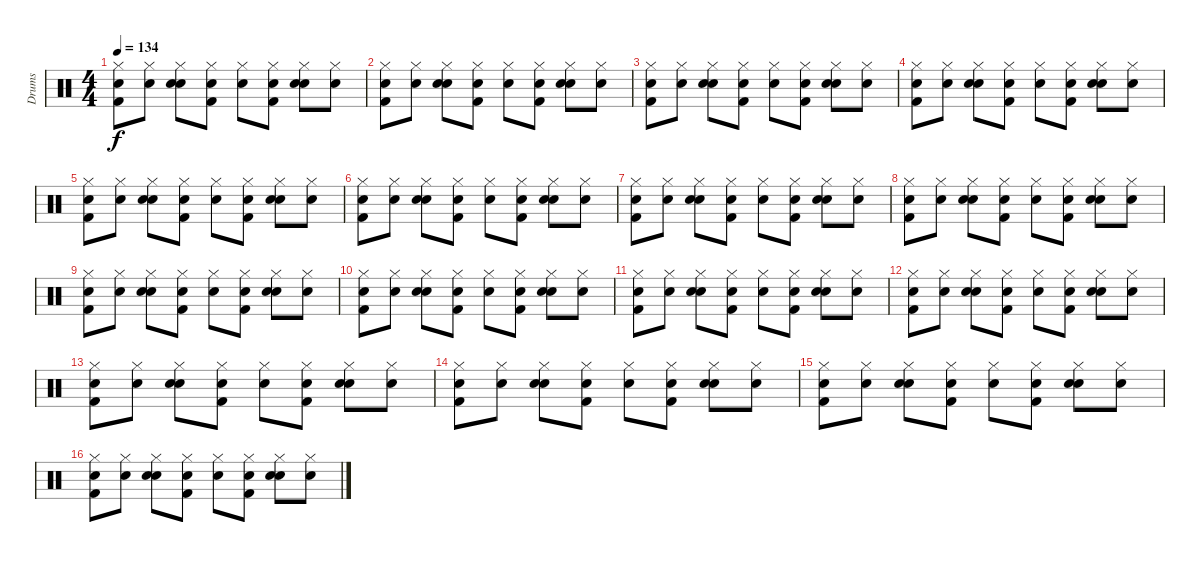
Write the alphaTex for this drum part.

\track ("Drums" "Drums") {instrument percussion}
\staff {score}
\articulation defaults
\ts (4 4)
\tempo 134
\clef neutral
\ks c
("Snare (hit)" "Kick (hit) 2" "Hi-Hat (closed)").8{dy f} ("Snare (hit)" "Hi-Hat (closed)").8 ("Snare (hit)" "Snare (hit) 2" "Hi-Hat (closed)").8 ("Snare (hit)" "Kick (hit) 2" "Hi-Hat (closed)").8 ("Snare (hit)" "Hi-Hat (closed)").8 ("Snare (hit)" "Kick (hit) 2" "Hi-Hat (closed)").8 ("Snare (hit)" "Snare (hit) 2" "Hi-Hat (closed)").8 ("Snare (hit)" "Hi-Hat (closed)").8 |
("Snare (hit)" "Kick (hit) 2" "Hi-Hat (closed)").8 ("Snare (hit)" "Hi-Hat (closed)").8 ("Snare (hit)" "Snare (hit) 2" "Hi-Hat (closed)").8 ("Snare (hit)" "Kick (hit) 2" "Hi-Hat (closed)").8 ("Snare (hit)" "Hi-Hat (closed)").8 ("Snare (hit)" "Kick (hit) 2" "Hi-Hat (closed)").8 ("Snare (hit)" "Snare (hit) 2" "Hi-Hat (closed)").8 ("Snare (hit)" "Hi-Hat (closed)").8 |
("Snare (hit)" "Kick (hit) 2" "Hi-Hat (closed)").8 ("Snare (hit)" "Hi-Hat (closed)").8 ("Snare (hit)" "Snare (hit) 2" "Hi-Hat (closed)").8 ("Snare (hit)" "Kick (hit) 2" "Hi-Hat (closed)").8 ("Snare (hit)" "Hi-Hat (closed)").8 ("Snare (hit)" "Kick (hit) 2" "Hi-Hat (closed)").8 ("Snare (hit)" "Snare (hit) 2" "Hi-Hat (closed)").8 ("Snare (hit)" "Hi-Hat (closed)").8 |
("Snare (hit)" "Kick (hit) 2" "Hi-Hat (closed)").8 ("Snare (hit)" "Hi-Hat (closed)").8 ("Snare (hit)" "Snare (hit) 2" "Hi-Hat (closed)").8 ("Snare (hit)" "Kick (hit) 2" "Hi-Hat (closed)").8 ("Snare (hit)" "Hi-Hat (closed)").8 ("Snare (hit)" "Kick (hit) 2" "Hi-Hat (closed)").8 ("Snare (hit)" "Snare (hit) 2" "Hi-Hat (closed)").8 ("Snare (hit)" "Hi-Hat (closed)").8 |
("Snare (hit)" "Kick (hit) 2" "Hi-Hat (closed)").8 ("Snare (hit)" "Hi-Hat (closed)").8 ("Snare (hit)" "Snare (hit) 2" "Hi-Hat (closed)").8 ("Snare (hit)" "Kick (hit) 2" "Hi-Hat (closed)").8 ("Snare (hit)" "Hi-Hat (closed)").8 ("Snare (hit)" "Kick (hit) 2" "Hi-Hat (closed)").8 ("Snare (hit)" "Snare (hit) 2" "Hi-Hat (closed)").8 ("Snare (hit)" "Hi-Hat (closed)").8 |
("Snare (hit)" "Kick (hit) 2" "Hi-Hat (closed)").8 ("Snare (hit)" "Hi-Hat (closed)").8 ("Snare (hit)" "Snare (hit) 2" "Hi-Hat (closed)").8 ("Snare (hit)" "Kick (hit) 2" "Hi-Hat (closed)").8 ("Snare (hit)" "Hi-Hat (closed)").8 ("Snare (hit)" "Kick (hit) 2" "Hi-Hat (closed)").8 ("Snare (hit)" "Snare (hit) 2" "Hi-Hat (closed)").8 ("Snare (hit)" "Hi-Hat (closed)").8 |
("Snare (hit)" "Kick (hit) 2" "Hi-Hat (closed)").8 ("Snare (hit)" "Hi-Hat (closed)").8 ("Snare (hit)" "Snare (hit) 2" "Hi-Hat (closed)").8 ("Snare (hit)" "Kick (hit) 2" "Hi-Hat (closed)").8 ("Snare (hit)" "Hi-Hat (closed)").8 ("Snare (hit)" "Kick (hit) 2" "Hi-Hat (closed)").8 ("Snare (hit)" "Snare (hit) 2" "Hi-Hat (closed)").8 ("Snare (hit)" "Hi-Hat (closed)").8 |
("Snare (hit)" "Kick (hit) 2" "Hi-Hat (closed)").8 ("Snare (hit)" "Hi-Hat (closed)").8 ("Snare (hit)" "Snare (hit) 2" "Hi-Hat (closed)").8 ("Snare (hit)" "Kick (hit) 2" "Hi-Hat (closed)").8 ("Snare (hit)" "Hi-Hat (closed)").8 ("Snare (hit)" "Kick (hit) 2" "Hi-Hat (closed)").8 ("Snare (hit)" "Snare (hit) 2" "Hi-Hat (closed)").8 ("Snare (hit)" "Hi-Hat (closed)").8 |
("Snare (hit)" "Kick (hit) 2" "Hi-Hat (closed)").8 ("Snare (hit)" "Hi-Hat (closed)").8 ("Snare (hit)" "Snare (hit) 2" "Hi-Hat (closed)").8 ("Snare (hit)" "Kick (hit) 2" "Hi-Hat (closed)").8 ("Snare (hit)" "Hi-Hat (closed)").8 ("Snare (hit)" "Kick (hit) 2" "Hi-Hat (closed)").8 ("Snare (hit)" "Snare (hit) 2" "Hi-Hat (closed)").8 ("Snare (hit)" "Hi-Hat (closed)").8 |
("Snare (hit)" "Kick (hit) 2" "Hi-Hat (closed)").8 ("Snare (hit)" "Hi-Hat (closed)").8 ("Snare (hit)" "Snare (hit) 2" "Hi-Hat (closed)").8 ("Snare (hit)" "Kick (hit) 2" "Hi-Hat (closed)").8 ("Snare (hit)" "Hi-Hat (closed)").8 ("Snare (hit)" "Kick (hit) 2" "Hi-Hat (closed)").8 ("Snare (hit)" "Snare (hit) 2" "Hi-Hat (closed)").8 ("Snare (hit)" "Hi-Hat (closed)").8 |
("Snare (hit)" "Kick (hit) 2" "Hi-Hat (closed)").8 ("Snare (hit)" "Hi-Hat (closed)").8 ("Snare (hit)" "Snare (hit) 2" "Hi-Hat (closed)").8 ("Snare (hit)" "Kick (hit) 2" "Hi-Hat (closed)").8 ("Snare (hit)" "Hi-Hat (closed)").8 ("Snare (hit)" "Kick (hit) 2" "Hi-Hat (closed)").8 ("Snare (hit)" "Snare (hit) 2" "Hi-Hat (closed)").8 ("Snare (hit)" "Hi-Hat (closed)").8 |
("Snare (hit)" "Kick (hit) 2" "Hi-Hat (closed)").8 ("Snare (hit)" "Hi-Hat (closed)").8 ("Snare (hit)" "Snare (hit) 2" "Hi-Hat (closed)").8 ("Snare (hit)" "Kick (hit) 2" "Hi-Hat (closed)").8 ("Snare (hit)" "Hi-Hat (closed)").8 ("Snare (hit)" "Kick (hit) 2" "Hi-Hat (closed)").8 ("Snare (hit)" "Snare (hit) 2" "Hi-Hat (closed)").8 ("Snare (hit)" "Hi-Hat (closed)").8 |
("Snare (hit)" "Kick (hit) 2" "Hi-Hat (closed)").8 ("Snare (hit)" "Hi-Hat (closed)").8 ("Snare (hit)" "Snare (hit) 2" "Hi-Hat (closed)").8 ("Snare (hit)" "Kick (hit) 2" "Hi-Hat (closed)").8 ("Snare (hit)" "Hi-Hat (closed)").8 ("Snare (hit)" "Kick (hit) 2" "Hi-Hat (closed)").8 ("Snare (hit)" "Snare (hit) 2" "Hi-Hat (closed)").8 ("Snare (hit)" "Hi-Hat (closed)").8 |
("Snare (hit)" "Kick (hit) 2" "Hi-Hat (closed)").8 ("Snare (hit)" "Hi-Hat (closed)").8 ("Snare (hit)" "Snare (hit) 2" "Hi-Hat (closed)").8 ("Snare (hit)" "Kick (hit) 2" "Hi-Hat (closed)").8 ("Snare (hit)" "Hi-Hat (closed)").8 ("Snare (hit)" "Kick (hit) 2" "Hi-Hat (closed)").8 ("Snare (hit)" "Snare (hit) 2" "Hi-Hat (closed)").8 ("Snare (hit)" "Hi-Hat (closed)").8 |
("Snare (hit)" "Kick (hit) 2" "Hi-Hat (closed)").8 ("Snare (hit)" "Hi-Hat (closed)").8 ("Snare (hit)" "Snare (hit) 2" "Hi-Hat (closed)").8 ("Snare (hit)" "Kick (hit) 2" "Hi-Hat (closed)").8 ("Snare (hit)" "Hi-Hat (closed)").8 ("Snare (hit)" "Kick (hit) 2" "Hi-Hat (closed)").8 ("Snare (hit)" "Snare (hit) 2" "Hi-Hat (closed)").8 ("Snare (hit)" "Hi-Hat (closed)").8 |
("Snare (hit)" "Kick (hit) 2" "Hi-Hat (closed)").8 ("Snare (hit)" "Hi-Hat (closed)").8 ("Snare (hit)" "Snare (hit) 2" "Hi-Hat (closed)").8 ("Snare (hit)" "Kick (hit) 2" "Hi-Hat (closed)").8 ("Snare (hit)" "Hi-Hat (closed)").8 ("Snare (hit)" "Kick (hit) 2" "Hi-Hat (closed)").8 ("Snare (hit)" "Snare (hit) 2" "Hi-Hat (closed)").8 ("Snare (hit)" "Hi-Hat (closed)").8
